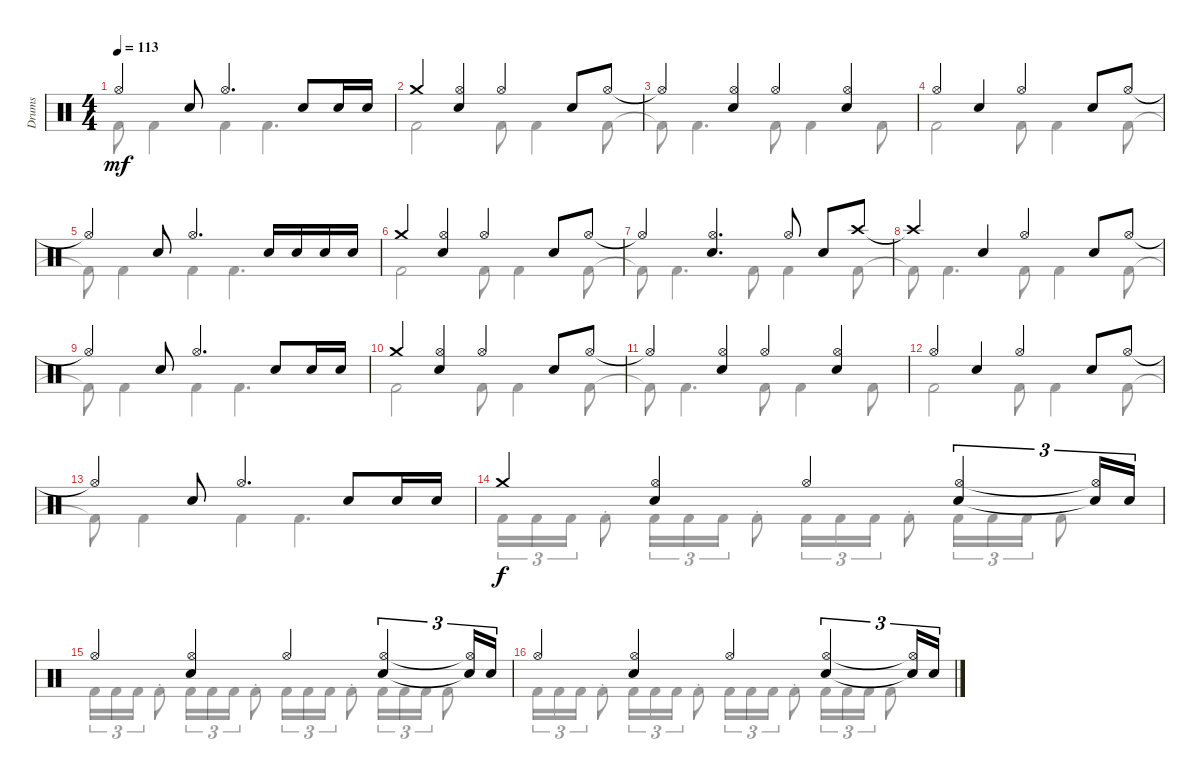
\track ("Drums" "Drums") {instrument percussion}
\staff {score}
\articulation defaults
\voice
\ts (4 4)
\tempo 113
\clef neutral
\ks c "Hi-Hat (open)"{t}.4{dy mf} "Snare (hit) 2".8 "Hi-Hat (open)".4{d} "Snare (hit) 2".8 "Snare (hit) 2".16 "Snare (hit) 2".16
|
"Crash medium (hit)".4 ("Hi-Hat (open)" "Snare (hit) 2").4 "Hi-Hat (open)".4 "Snare (hit) 2".8 "Hi-Hat (open)".8 |
"Hi-Hat (open)"{t}.4 ("Hi-Hat (open)" "Snare (hit) 2").4 "Hi-Hat (open)".4 ("Hi-Hat (open)" "Snare (hit) 2").4 |
"Hi-Hat (open)".4 "Snare (hit) 2".4 "Hi-Hat (open)".4 "Snare (hit) 2".8 "Hi-Hat (open)".8 |
"Hi-Hat (open)"{t}.4 "Snare (hit) 2".8 "Hi-Hat (open)".4{d} "Snare (hit) 2".16 "Snare (hit) 2".16 "Snare (hit) 2".16 "Snare (hit) 2".16 |
"Crash medium (hit)".4 ("Hi-Hat (open)" "Snare (hit) 2").4 "Hi-Hat (open)".4 "Snare (hit) 2".8 "Hi-Hat (open)".8 |
"Hi-Hat (open)"{t}.4 ("Hi-Hat (open)" "Snare (hit) 2").4{d} "Hi-Hat (open)".8 "Snare (hit) 2".8 "Crash high (hit)".8 |
"Crash high (hit)"{t}.4 "Snare (hit) 2".4 "Hi-Hat (open)".4 "Snare (hit) 2".8 "Hi-Hat (open)".8 |
"Hi-Hat (open)"{t}.4 "Snare (hit) 2".8 "Hi-Hat (open)".4{d} "Snare (hit) 2".8 "Snare (hit) 2".16 "Snare (hit) 2".16 |
"Crash medium (hit)".4 ("Hi-Hat (open)" "Snare (hit) 2").4 "Hi-Hat (open)".4 "Snare (hit) 2".8 "Hi-Hat (open)".8 |
"Hi-Hat (open)"{t}.4 ("Hi-Hat (open)" "Snare (hit) 2").4 "Hi-Hat (open)".4 ("Hi-Hat (open)" "Snare (hit) 2").4 |
"Hi-Hat (open)".4 "Snare (hit) 2".4 "Hi-Hat (open)".4 "Snare (hit) 2".8 "Hi-Hat (open)".8 |
"Hi-Hat (open)"{t}.4 "Snare (hit) 2".8 "Hi-Hat (open)".4{d} "Snare (hit) 2".8 "Snare (hit) 2".16 "Snare (hit) 2".16 |
"Crash medium (hit)".4{dy f} ("Hi-Hat (open)" "Snare (hit) 2").4 "Hi-Hat (open)".4 ("Hi-Hat (open)" "Snare (hit) 2").4{tu (3 2)} ("Hi-Hat (open)"{t} "Snare (hit) 2"{t}).16{tu (3 2)} "Snare (hit) 2".16{tu (3 2)} |
"Hi-Hat (open)".4 ("Hi-Hat (open)" "Snare (hit) 2").4 "Hi-Hat (open)".4 ("Hi-Hat (open)" "Snare (hit) 2").4{tu (3 2)} ("Hi-Hat (open)"{t} "Snare (hit) 2"{t}).16{tu (3 2)} "Snare (hit) 2".16{tu (3 2)} |
"Hi-Hat (open)".4 ("Hi-Hat (open)" "Snare (hit) 2").4 "Hi-Hat (open)".4 ("Hi-Hat (open)" "Snare (hit) 2").4{tu (3 2)} ("Hi-Hat (open)"{t} "Snare (hit) 2"{t}).16{tu (3 2)} "Snare (hit) 2".16{tu (3 2)}
\voice
\clef neutral
\ottava regular
\simile none
\ks c "Kick (hit) 2"{t}.8{dy mf} "Kick (hit) 2".4 "Kick (hit) 2".4 "Kick (hit) 2".4{d}
|
"Kick (hit) 2".2 "Kick (hit) 2".8 "Kick (hit) 2".4 "Kick (hit) 2".8 |
"Kick (hit) 2"{t}.8 "Kick (hit) 2".4{d} "Kick (hit) 2".8 "Kick (hit) 2".4 "Kick (hit) 2".8 |
"Kick (hit) 2".2 "Kick (hit) 2".8 "Kick (hit) 2".4 "Kick (hit) 2".8 |
"Kick (hit) 2"{t}.8 "Kick (hit) 2".4 "Kick (hit) 2".4 "Kick (hit) 2".4{d} |
"Kick (hit) 2".2 "Kick (hit) 2".8 "Kick (hit) 2".4 "Kick (hit) 2".8 |
"Kick (hit) 2"{t}.8 "Kick (hit) 2".4{d} "Kick (hit) 2".8 "Kick (hit) 2".4 "Kick (hit) 2".8 |
"Kick (hit) 2"{t}.8 "Kick (hit) 2".4{d} "Kick (hit) 2".8 "Kick (hit) 2".4 "Kick (hit) 2".8 |
"Kick (hit) 2"{t}.8 "Kick (hit) 2".4 "Kick (hit) 2".4 "Kick (hit) 2".4{d} |
"Kick (hit) 2".2 "Kick (hit) 2".8 "Kick (hit) 2".4 "Kick (hit) 2".8 |
"Kick (hit) 2"{t}.8 "Kick (hit) 2".4{d} "Kick (hit) 2".8 "Kick (hit) 2".4 "Kick (hit) 2".8 |
"Kick (hit) 2".2 "Kick (hit) 2".8 "Kick (hit) 2".4 "Kick (hit) 2".8 |
"Kick (hit) 2"{t}.8 "Kick (hit) 2".4 "Kick (hit) 2".4 "Kick (hit) 2".4{d} |
"Kick (hit) 2".16{tu (3 2) dy f} "Kick (hit) 2".16{tu (3 2)} "Kick (hit) 2".16{tu (3 2)} "Kick (hit) 2"{st}.8 "Kick (hit) 2".16{tu (3 2)} "Kick (hit) 2".16{tu (3 2)} "Kick (hit) 2".16{tu (3 2)} "Kick (hit) 2"{st}.8 "Kick (hit) 2".16{tu (3 2)} "Kick (hit) 2".16{tu (3 2)} "Kick (hit) 2".16{tu (3 2)} "Kick (hit) 2"{st}.8 "Kick (hit) 2".16{tu (3 2)} "Kick (hit) 2".16{tu (3 2)} "Kick (hit) 2".16{tu (3 2)} "Kick (hit) 2"{st}.8 |
"Kick (hit) 2".16{tu (3 2)} "Kick (hit) 2".16{tu (3 2)} "Kick (hit) 2".16{tu (3 2)} "Kick (hit) 2"{st}.8 "Kick (hit) 2".16{tu (3 2)} "Kick (hit) 2".16{tu (3 2)} "Kick (hit) 2".16{tu (3 2)} "Kick (hit) 2"{st}.8 "Kick (hit) 2".16{tu (3 2)} "Kick (hit) 2".16{tu (3 2)} "Kick (hit) 2".16{tu (3 2)} "Kick (hit) 2"{st}.8 "Kick (hit) 2".16{tu (3 2)} "Kick (hit) 2".16{tu (3 2)} "Kick (hit) 2".16{tu (3 2)} "Kick (hit) 2"{st}.8 |
"Kick (hit) 2".16{tu (3 2)} "Kick (hit) 2".16{tu (3 2)} "Kick (hit) 2".16{tu (3 2)} "Kick (hit) 2"{st}.8 "Kick (hit) 2".16{tu (3 2)} "Kick (hit) 2".16{tu (3 2)} "Kick (hit) 2".16{tu (3 2)} "Kick (hit) 2"{st}.8 "Kick (hit) 2".16{tu (3 2)} "Kick (hit) 2".16{tu (3 2)} "Kick (hit) 2".16{tu (3 2)} "Kick (hit) 2"{st}.8 "Kick (hit) 2".16{tu (3 2)} "Kick (hit) 2".16{tu (3 2)} "Kick (hit) 2".16{tu (3 2)} "Kick (hit) 2"{st}.8
